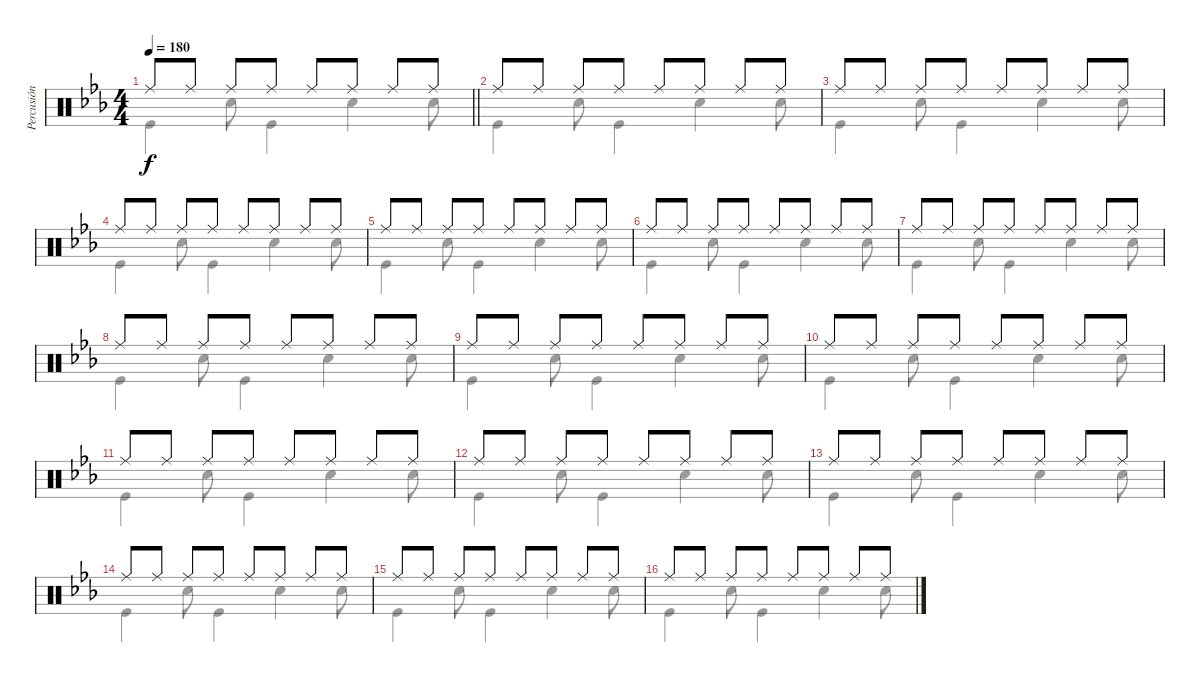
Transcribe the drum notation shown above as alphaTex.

\track ("Percusión" "Percusión") {instrument percussion}
\staff {score}
\articulation defaults
\voice
\ts (4 4)
\tempo 180
\clef neutral
\barLineRight lightlight
\ks eb "Ride (middle)".8{dy f} "Ride (middle)".8 "Ride (middle)".8 "Ride (middle)".8 "Ride (middle)".8 "Ride (middle)".8 "Ride (middle)".8 "Ride (middle)".8
|
"Ride (middle)".8 "Ride (middle)".8 "Ride (middle)".8 "Ride (middle)".8 "Ride (middle)".8 "Ride (middle)".8 "Ride (middle)".8 "Ride (middle)".8 |
"Ride (middle)".8 "Ride (middle)".8 "Ride (middle)".8 "Ride (middle)".8 "Ride (middle)".8 "Ride (middle)".8 "Ride (middle)".8 "Ride (middle)".8 |
"Ride (middle)".8 "Ride (middle)".8 "Ride (middle)".8 "Ride (middle)".8 "Ride (middle)".8 "Ride (middle)".8 "Ride (middle)".8 "Ride (middle)".8 |
"Ride (middle)".8 "Ride (middle)".8 "Ride (middle)".8 "Ride (middle)".8 "Ride (middle)".8 "Ride (middle)".8 "Ride (middle)".8 "Ride (middle)".8 |
"Ride (middle)".8 "Ride (middle)".8 "Ride (middle)".8 "Ride (middle)".8 "Ride (middle)".8 "Ride (middle)".8 "Ride (middle)".8 "Ride (middle)".8 |
"Ride (middle)".8 "Ride (middle)".8 "Ride (middle)".8 "Ride (middle)".8 "Ride (middle)".8 "Ride (middle)".8 "Ride (middle)".8 "Ride (middle)".8 |
"Ride (middle)".8 "Ride (middle)".8 "Ride (middle)".8 "Ride (middle)".8 "Ride (middle)".8 "Ride (middle)".8 "Ride (middle)".8 "Ride (middle)".8 |
"Ride (middle)".8 "Ride (middle)".8 "Ride (middle)".8 "Ride (middle)".8 "Ride (middle)".8 "Ride (middle)".8 "Ride (middle)".8 "Ride (middle)".8 |
"Ride (middle)".8 "Ride (middle)".8 "Ride (middle)".8 "Ride (middle)".8 "Ride (middle)".8 "Ride (middle)".8 "Ride (middle)".8 "Ride (middle)".8 |
"Ride (middle)".8 "Ride (middle)".8 "Ride (middle)".8 "Ride (middle)".8 "Ride (middle)".8 "Ride (middle)".8 "Ride (middle)".8 "Ride (middle)".8 |
"Ride (middle)".8 "Ride (middle)".8 "Ride (middle)".8 "Ride (middle)".8 "Ride (middle)".8 "Ride (middle)".8 "Ride (middle)".8 "Ride (middle)".8 |
"Ride (middle)".8 "Ride (middle)".8 "Ride (middle)".8 "Ride (middle)".8 "Ride (middle)".8 "Ride (middle)".8 "Ride (middle)".8 "Ride (middle)".8 |
"Ride (middle)".8 "Ride (middle)".8 "Ride (middle)".8 "Ride (middle)".8 "Ride (middle)".8 "Ride (middle)".8 "Ride (middle)".8 "Ride (middle)".8 |
"Ride (middle)".8 "Ride (middle)".8 "Ride (middle)".8 "Ride (middle)".8 "Ride (middle)".8 "Ride (middle)".8 "Ride (middle)".8 "Ride (middle)".8 |
"Ride (middle)".8 "Ride (middle)".8 "Ride (middle)".8 "Ride (middle)".8 "Ride (middle)".8 "Ride (middle)".8 "Ride (middle)".8 "Ride (middle)".8
\voice
\clef neutral
\ottava regular
\simile none
\barLineRight lightlight
\ks eb "Kick (hit)".4{dy f} "Snare (hit) 2".8 "Kick (hit)".4 "Snare (hit) 2".4 "Snare (hit) 2".8
|
"Kick (hit)".4 "Snare (hit) 2".8 "Kick (hit)".4 "Snare (hit) 2".4 "Snare (hit) 2".8 |
"Kick (hit)".4 "Snare (hit) 2".8 "Kick (hit)".4 "Snare (hit) 2".4 "Snare (hit) 2".8 |
"Kick (hit)".4 "Snare (hit) 2".8 "Kick (hit)".4 "Snare (hit) 2".4 "Snare (hit) 2".8 |
"Kick (hit)".4 "Snare (hit) 2".8 "Kick (hit)".4 "Snare (hit) 2".4 "Snare (hit) 2".8 |
"Kick (hit)".4 "Snare (hit) 2".8 "Kick (hit)".4 "Snare (hit) 2".4 "Snare (hit) 2".8 |
"Kick (hit)".4 "Snare (hit) 2".8 "Kick (hit)".4 "Snare (hit) 2".4 "Snare (hit) 2".8 |
"Kick (hit)".4 "Snare (hit) 2".8 "Kick (hit)".4 "Snare (hit) 2".4 "Snare (hit) 2".8 |
"Kick (hit)".4 "Snare (hit) 2".8 "Kick (hit)".4 "Snare (hit) 2".4 "Snare (hit) 2".8 |
"Kick (hit)".4 "Snare (hit) 2".8 "Kick (hit)".4 "Snare (hit) 2".4 "Snare (hit) 2".8 |
"Kick (hit)".4 "Snare (hit) 2".8 "Kick (hit)".4 "Snare (hit) 2".4 "Snare (hit) 2".8 |
"Kick (hit)".4 "Snare (hit) 2".8 "Kick (hit)".4 "Snare (hit) 2".4 "Snare (hit) 2".8 |
"Kick (hit)".4 "Snare (hit) 2".8 "Kick (hit)".4 "Snare (hit) 2".4 "Snare (hit) 2".8 |
"Kick (hit)".4 "Snare (hit) 2".8 "Kick (hit)".4 "Snare (hit) 2".4 "Snare (hit) 2".8 |
"Kick (hit)".4 "Snare (hit) 2".8 "Kick (hit)".4 "Snare (hit) 2".4 "Snare (hit) 2".8 |
"Kick (hit)".4 "Snare (hit) 2".8 "Kick (hit)".4 "Snare (hit) 2".4 "Snare (hit) 2".8
